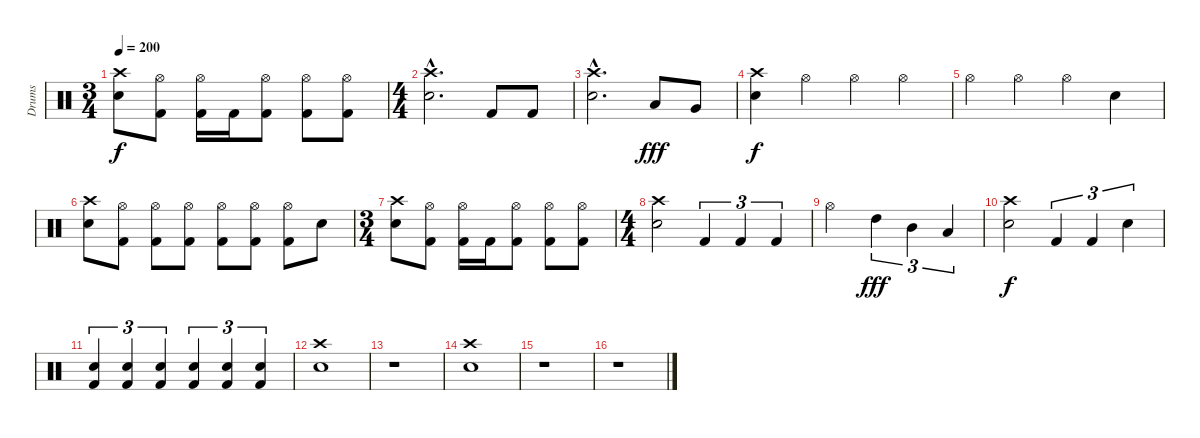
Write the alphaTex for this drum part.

\track ("Drums" "Drums") {instrument percussion}
\staff {score}
\articulation defaults
\ts (3 4)
\tempo 200
\clef neutral
\ks c
("Crash high (hit)" "Snare (hit) 2").8{dy f} ("Hi-Hat (open)" "Kick (hit) 2").8 ("Hi-Hat (open)" "Kick (hit) 2").16 "Kick (hit) 2".16 ("Hi-Hat (open)" "Kick (hit) 2").8 ("Hi-Hat (open)" "Kick (hit) 2").8 ("Hi-Hat (open)" "Kick (hit) 2").8 |
\ts (4 4)
("Crash high (hit)"{hac} "Snare (hit) 2"{hac}).2{d} "Kick (hit) 2".8 "Kick (hit) 2".8 |
("Crash high (hit)"{hac} "Snare (hit) 2"{hac}).2{d} "Low Tom (hit)".8{dy fff} "Very Low Tom (hit)".8 |
("Crash high (hit)" "Snare (hit) 2").4{dy f} "Hi-Hat (open)".4 "Hi-Hat (open)".4 "Hi-Hat (open)".4 |
"Hi-Hat (open)".4 "Hi-Hat (open)".4 "Hi-Hat (open)".4 "Snare (hit) 2".4 |
("Crash high (hit)" "Snare (hit) 2").8 ("Hi-Hat (open)" "Kick (hit) 2").8 ("Hi-Hat (open)" "Kick (hit) 2").8 ("Hi-Hat (open)" "Kick (hit) 2").8 ("Hi-Hat (open)" "Kick (hit) 2").8 ("Hi-Hat (open)" "Kick (hit) 2").8 ("Hi-Hat (open)" "Kick (hit) 2").8 "Snare (hit) 2".8 |
\ts (3 4)
("Crash high (hit)" "Snare (hit) 2").8 ("Hi-Hat (open)" "Kick (hit) 2").8 ("Hi-Hat (open)" "Kick (hit) 2").16 "Kick (hit) 2".16 ("Hi-Hat (open)" "Kick (hit) 2").8 ("Hi-Hat (open)" "Kick (hit) 2").8 ("Hi-Hat (open)" "Kick (hit) 2").8 |
\ts (4 4)
("Crash high (hit)" "Snare (hit) 2").2 "Kick (hit) 2".4{tu (3 2)} "Kick (hit) 2".4{tu (3 2)} "Kick (hit) 2".4{tu (3 2)} |
"Hi-Hat (open)".2 "High Tom (hit)".4{tu (3 2) dy fff} "Mid Tom (hit)".4{tu (3 2)} "Low Tom (hit)".4{tu (3 2)} |
("Crash high (hit)" "Snare (hit) 2").2{dy f} "Kick (hit) 2".4{tu (3 2)} "Kick (hit) 2".4{tu (3 2)} "Snare (hit) 2".4{tu (3 2)} |
("Snare (hit) 2" "Kick (hit) 2").4{tu (3 2)} ("Snare (hit) 2" "Kick (hit) 2").4{tu (3 2)} ("Snare (hit) 2" "Kick (hit) 2").4{tu (3 2)} ("Snare (hit) 2" "Kick (hit) 2").4{tu (3 2)} ("Snare (hit) 2" "Kick (hit) 2").4{tu (3 2)} ("Snare (hit) 2" "Kick (hit) 2").4{tu (3 2)} |
("Crash high (hit)" "Snare (hit) 2").1 |
r.1 |
("Crash high (hit)" "Snare (hit) 2").1 |
r.1 |
r.1
